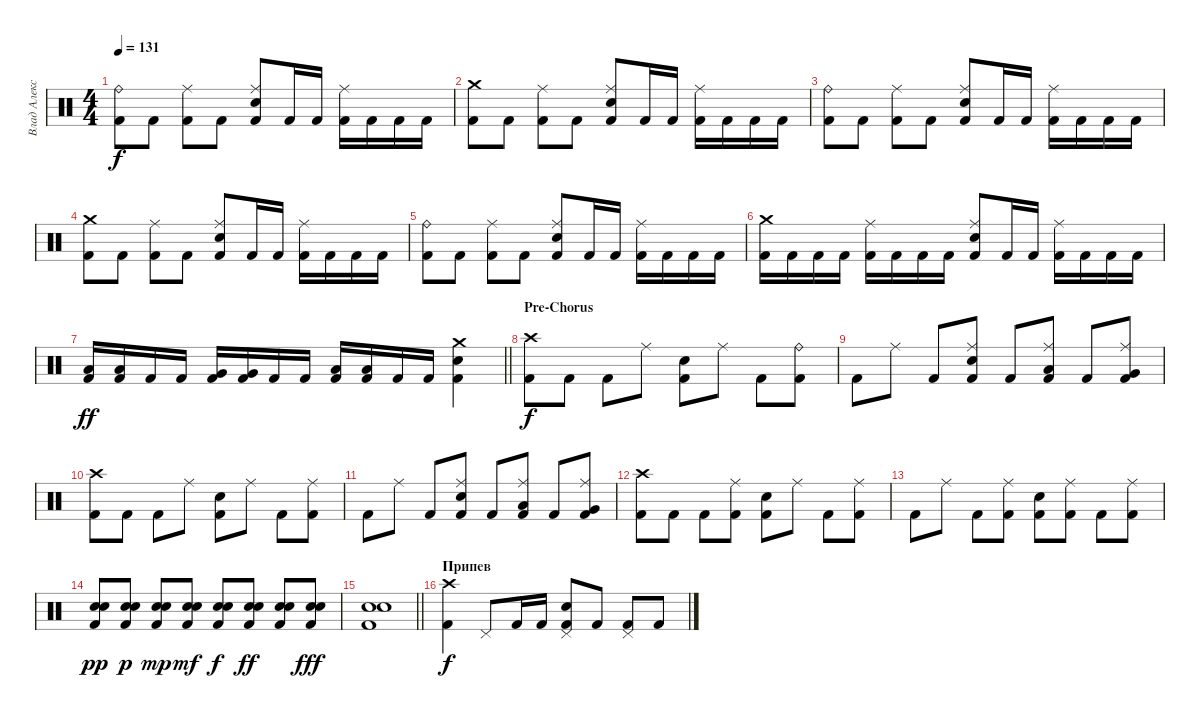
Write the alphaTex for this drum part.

\track ("Влад Алексеенко" "Влад Алекс") {instrument percussion}
\staff {score}
\articulation defaults
\ts (4 4)
\tempo 131
\clef neutral
\ks c
("Ride (bell)" "Kick (hit) 2").8{dy f} "Kick (hit) 2".8 ("Ride (middle)" "Kick (hit) 2").8 "Kick (hit) 2".8 ("Ride (middle)" "Electric Snare (hit)" "Kick (hit) 2").8 "Kick (hit) 2".16 "Kick (hit) 2".16 ("Ride (middle)" "Kick (hit) 2").16 "Kick (hit) 2".16 "Kick (hit) 2".16 "Kick (hit) 2".16 |
("Crash medium (hit)" "Kick (hit) 2").8 "Kick (hit) 2".8 ("Ride (middle)" "Kick (hit) 2").8 "Kick (hit) 2".8 ("Ride (middle)" "Electric Snare (hit)" "Kick (hit) 2").8 "Kick (hit) 2".16 "Kick (hit) 2".16 ("Ride (middle)" "Kick (hit) 2").16 "Kick (hit) 2".16 "Kick (hit) 2".16 "Kick (hit) 2".16 |
("Ride (bell)" "Kick (hit) 2").8 "Kick (hit) 2".8 ("Ride (middle)" "Kick (hit) 2").8 "Kick (hit) 2".8 ("Ride (middle)" "Electric Snare (hit)" "Kick (hit) 2").8 "Kick (hit) 2".16 "Kick (hit) 2".16 ("Ride (middle)" "Kick (hit) 2").16 "Kick (hit) 2".16 "Kick (hit) 2".16 "Kick (hit) 2".16 |
("Crash medium (hit)" "Kick (hit) 2").8 "Kick (hit) 2".8 ("Ride (middle)" "Kick (hit) 2").8 "Kick (hit) 2".8 ("Ride (middle)" "Electric Snare (hit)" "Kick (hit) 2").8 "Kick (hit) 2".16 "Kick (hit) 2".16 ("Ride (middle)" "Kick (hit) 2").16 "Kick (hit) 2".16 "Kick (hit) 2".16 "Kick (hit) 2".16 |
("Ride (bell)" "Kick (hit) 2").8 "Kick (hit) 2".8 ("Ride (middle)" "Kick (hit) 2").8 "Kick (hit) 2".8 ("Ride (middle)" "Electric Snare (hit)" "Kick (hit) 2").8 "Kick (hit) 2".16 "Kick (hit) 2".16 ("Ride (middle)" "Kick (hit) 2").16 "Kick (hit) 2".16 "Kick (hit) 2".16 "Kick (hit) 2".16 |
("Crash medium (hit)" "Kick (hit) 2").16 "Kick (hit) 2".16 "Kick (hit) 2".16 "Kick (hit) 2".16 ("Ride (middle)" "Kick (hit) 2").16 "Kick (hit) 2".16 "Kick (hit) 2".16 "Kick (hit) 2".16 ("Ride (middle)" "Electric Snare (hit)" "Kick (hit) 2").8 "Kick (hit) 2".16 "Kick (hit) 2".16 ("Ride (middle)" "Kick (hit) 2").16 "Kick (hit) 2".16 "Kick (hit) 2".16 "Kick (hit) 2".16 |
\barLineRight lightlight
("Low Tom (hit)" "Kick (hit) 2").16{dy ff} ("Low Tom (hit)" "Kick (hit) 2").16 "Kick (hit) 2".16 "Kick (hit) 2".16 ("Very Low Tom (hit)" "Kick (hit) 2").16 ("Very Low Tom (hit)" "Kick (hit) 2").16 "Kick (hit) 2".16 "Kick (hit) 2".16 ("Low Floor Tom (hit)" "Kick (hit) 2").16 ("Low Floor Tom (hit)" "Kick (hit) 2").16 "Kick (hit) 2".16 "Kick (hit) 2".16 ("Crash medium (hit)" "Electric Snare (hit)" "Kick (hit) 2").4 |
\section ("" "Pre-Chorus")
("Crash high (hit)" "Kick (hit) 2").8{dy f} "Kick (hit) 2".8 "Kick (hit) 2".8 "Ride (middle)".8 ("Electric Snare (hit)" "Kick (hit) 2").8 "Ride (middle)".8 "Kick (hit) 2".8 ("Ride (bell)" "Kick (hit) 2").8 |
"Kick (hit) 2".8 "Ride (middle)".8 "Kick (hit) 2".8 ("Ride (middle)" "Electric Snare (hit)" "Kick (hit) 2").8 "Kick (hit) 2".8 ("Ride (middle)" "Low Tom (hit)" "Kick (hit) 2").8 "Kick (hit) 2".8 ("Ride (middle)" "Very Low Tom (hit)" "Kick (hit) 2").8 |
("Crash high (hit)" "Kick (hit) 2").8 "Kick (hit) 2".8 "Kick (hit) 2".8 "Ride (middle)".8 ("Electric Snare (hit)" "Kick (hit) 2").8 "Ride (middle)".8 "Kick (hit) 2".8 ("Ride (middle)" "Kick (hit) 2").8 |
"Kick (hit) 2".8 "Ride (middle)".8 "Kick (hit) 2".8 ("Ride (middle)" "Electric Snare (hit)" "Kick (hit) 2").8 "Kick (hit) 2".8 ("Ride (middle)" "Low Tom (hit)" "Kick (hit) 2").8 "Kick (hit) 2".8 ("Ride (middle)" "Very Low Tom (hit)" "Kick (hit) 2").8 |
("Crash high (hit)" "Kick (hit) 2").8 "Kick (hit) 2".8 "Kick (hit) 2".8 ("Ride (middle)" "Kick (hit) 2").8 ("Electric Snare (hit)" "Kick (hit) 2").8 "Ride (middle)".8 "Kick (hit) 2".8 ("Ride (middle)" "Kick (hit) 2").8 |
"Kick (hit) 2".8 "Ride (middle)".8 "Kick (hit) 2".8 ("Ride (middle)" "Kick (hit) 2").8 ("Electric Snare (hit)" "Kick (hit) 2").8 ("Ride (middle)" "Kick (hit) 2").8 "Kick (hit) 2".8 ("Ride (middle)" "Kick (hit) 2").8 |
("Electric Snare (hit)" "Electric Snare (hit)" "Kick (hit) 2").8{dy pp} ("Electric Snare (hit)" "Electric Snare (hit)" "Kick (hit) 2").8{dy p} ("Electric Snare (hit)" "Electric Snare (hit)" "Kick (hit) 2").8{dy mp} ("Electric Snare (hit)" "Electric Snare (hit)" "Kick (hit) 2").8{dy mf} ("Electric Snare (hit)" "Electric Snare (hit)" "Kick (hit) 2").8{dy f} ("Electric Snare (hit)" "Electric Snare (hit)" "Kick (hit) 2").8{dy ff} ("Electric Snare (hit)" "Electric Snare (hit)" "Kick (hit) 2").8 ("Electric Snare (hit)" "Electric Snare (hit)" "Kick (hit) 2").8{dy fff} |
\barLineRight lightlight
("Electric Snare (hit)" "Electric Snare (hit)" "Kick (hit) 2").1 |
\section ("" "Припев")
("Crash high (hit)" "Kick (hit) 2").4{dy f} "Pedal Hi-Hat (hit)".8 "Kick (hit) 2".16 "Kick (hit) 2".16 ("Pedal Hi-Hat (hit)" "Electric Snare (hit)" "Kick (hit) 2").8 "Kick (hit) 2".8 ("Pedal Hi-Hat (hit)" "Kick (hit) 2").8 "Kick (hit) 2".8
